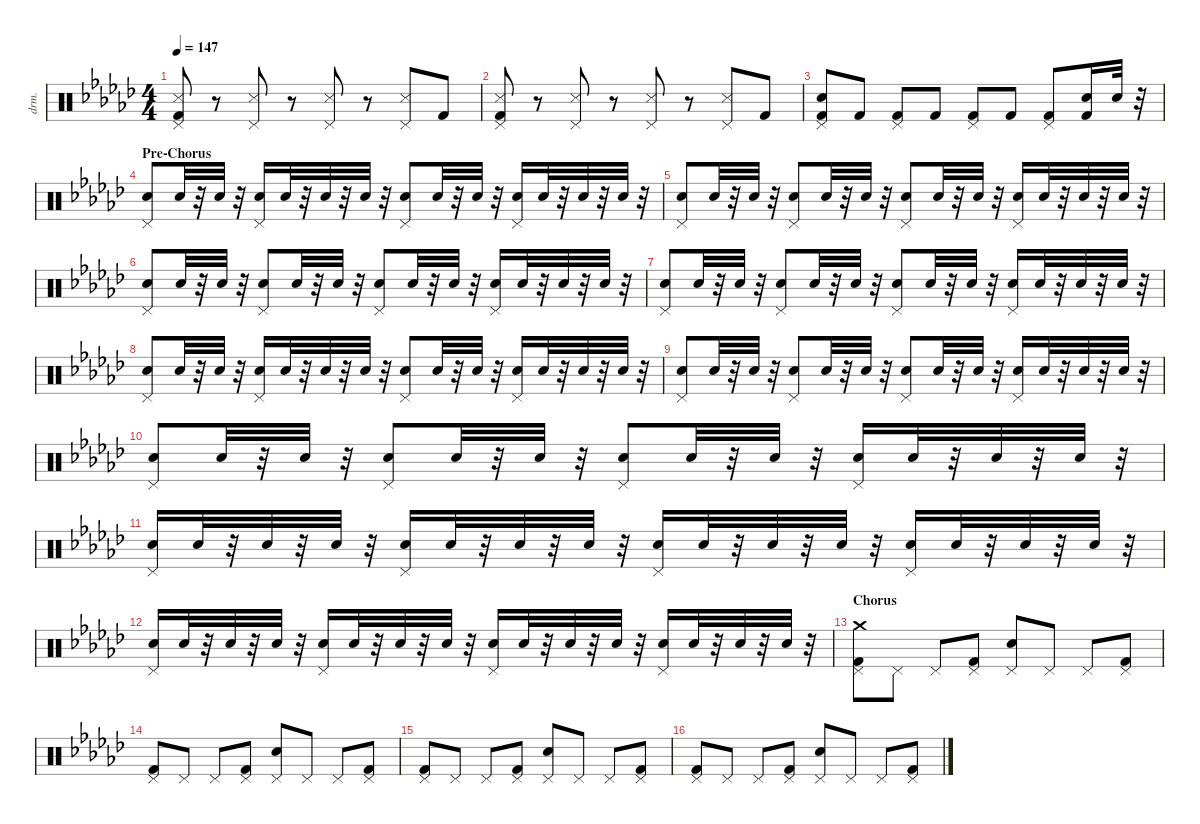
\defaultSystemsLayout 4
\hideDynamics
\bracketExtendMode nobrackets
\otherSystemsTrackNameOrientation horizontal
\track ("Drums" "drm.") {instrument percussion}
\staff {score}
\articulation defaults
\ts (4 4)
\tempo 147
\clef neutral
\ks ebminor
("Pedal Hi-Hat (hit)"{acc forcenatural} "Kick (hit) 2"{acc forcenatural} "Snare (side stick) 3"{acc forcenatural}).8{dy f beam Up} r.8{beam Up} ("Pedal Hi-Hat (hit)"{acc forcenatural} "Snare (side stick) 3"{acc forcenatural}).8{beam Up} r.8{beam Up} ("Pedal Hi-Hat (hit)"{acc forcenatural} "Snare (side stick) 3"{acc forcenatural}).8{beam Up} r.8{beam Up} ("Pedal Hi-Hat (hit)"{acc forcenatural} "Snare (side stick) 3"{acc forcenatural}).8{beam Up} "Kick (hit) 2"{acc forcenatural}.8{beam Up} |
("Pedal Hi-Hat (hit)"{acc forcenatural} "Kick (hit) 2"{acc forcenatural} "Snare (side stick) 3"{acc forcenatural}).8{beam Up} r.8{beam Up} ("Pedal Hi-Hat (hit)"{acc forcenatural} "Snare (side stick) 3"{acc forcenatural}).8{beam Up} r.8{beam Up} ("Pedal Hi-Hat (hit)"{acc forcenatural} "Snare (side stick) 3"{acc forcenatural}).8{beam Up} r.8{beam Up} ("Pedal Hi-Hat (hit)"{acc forcenatural} "Snare (side stick) 3"{acc forcenatural}).8{beam Up} "Kick (hit) 2"{acc forcenatural}.8{beam Up} |
("Pedal Hi-Hat (hit)"{acc forcenatural} "Kick (hit) 2"{acc forcenatural} "Snare (hit) 2"{acc forcenatural}).8{beam Up} "Kick (hit) 2"{acc forcenatural}.8{dy mf beam Up} ("Pedal Hi-Hat (hit)"{acc forcenatural} "Kick (hit) 2"{acc forcenatural}).8{dy f beam Up} "Kick (hit) 2"{acc forcenatural}.8{beam Up} ("Pedal Hi-Hat (hit)"{acc forcenatural} "Kick (hit) 2"{acc forcenatural}).8{beam Up} "Kick (hit) 2"{acc forcenatural}.8{dy ff beam Up} ("Pedal Hi-Hat (hit)"{acc forcenatural} "Kick (hit) 2"{acc forcenatural}).8{dy f beam Up} ("Kick (hit) 2"{acc forcenatural} "Snare (hit) 2"{acc forcenatural}).16{dy fff beam Up} "Snare (hit) 2"{acc forcenatural}.32{dy mf beam Up} r.32{beam Up} |
\section ("" "Pre-Chorus")
("Pedal Hi-Hat (hit)"{acc forcenatural} "Snare (hit) 2"{acc forcenatural}).8{dy f beam Up} "Snare (hit) 2"{acc forcenatural}.32{dy mf beam Up} r.32{beam Up} "Snare (hit) 2"{acc forcenatural}.32{beam Up} r.32{beam Up} ("Pedal Hi-Hat (hit)"{acc forcenatural} "Snare (hit) 2"{acc forcenatural}).16{dy f beam Up} "Snare (hit) 2"{acc forcenatural}.32{dy mf beam Up} r.32{beam Up} "Snare (hit) 2"{acc forcenatural}.32{beam Up} r.32{beam Up} "Snare (hit) 2"{acc forcenatural}.32{beam Up} r.32{beam Up} ("Pedal Hi-Hat (hit)"{acc forcenatural} "Snare (hit) 2"{acc forcenatural}).8{dy f beam Up} "Snare (hit) 2"{acc forcenatural}.32{dy mf beam Up} r.32{beam Up} "Snare (hit) 2"{acc forcenatural}.32{beam Up} r.32{beam Up} ("Pedal Hi-Hat (hit)"{acc forcenatural} "Snare (hit) 2"{acc forcenatural}).16{dy f beam Up} "Snare (hit) 2"{acc forcenatural}.32{dy mf beam Up} r.32{beam Up} "Snare (hit) 2"{acc forcenatural}.32{beam Up} r.32{beam Up} "Snare (hit) 2"{acc forcenatural}.32{beam Up} r.32{beam Up} |
("Pedal Hi-Hat (hit)"{acc forcenatural} "Snare (hit) 2"{acc forcenatural}).8{dy f beam Up} "Snare (hit) 2"{acc forcenatural}.32{dy mf beam Up} r.32{beam Up} "Snare (hit) 2"{acc forcenatural}.32{beam Up} r.32{beam Up} ("Pedal Hi-Hat (hit)"{acc forcenatural} "Snare (hit) 2"{acc forcenatural}).8{dy f beam Up} "Snare (hit) 2"{acc forcenatural}.32{dy mf beam Up} r.32{beam Up} "Snare (hit) 2"{acc forcenatural}.32{beam Up} r.32{beam Up} ("Pedal Hi-Hat (hit)"{acc forcenatural} "Snare (hit) 2"{acc forcenatural}).8{dy f beam Up} "Snare (hit) 2"{acc forcenatural}.32{dy mf beam Up} r.32{beam Up} "Snare (hit) 2"{acc forcenatural}.32{beam Up} r.32{beam Up} ("Pedal Hi-Hat (hit)"{acc forcenatural} "Snare (hit) 2"{acc forcenatural}).16{dy f beam Up} "Snare (hit) 2"{acc forcenatural}.32{dy mf beam Up} r.32{beam Up} "Snare (hit) 2"{acc forcenatural}.32{beam Up} r.32{beam Up} "Snare (hit) 2"{acc forcenatural}.32{beam Up} r.32{beam Up} |
("Pedal Hi-Hat (hit)"{acc forcenatural} "Snare (hit) 2"{acc forcenatural}).8{dy f beam Up} "Snare (hit) 2"{acc forcenatural}.32{dy mf beam Up} r.32{beam Up} "Snare (hit) 2"{acc forcenatural}.32{beam Up} r.32{beam Up} ("Pedal Hi-Hat (hit)"{acc forcenatural} "Snare (hit) 2"{acc forcenatural}).8{dy f beam Up} "Snare (hit) 2"{acc forcenatural}.32{dy mf beam Up} r.32{beam Up} "Snare (hit) 2"{acc forcenatural}.32{beam Up} r.32{beam Up} ("Pedal Hi-Hat (hit)"{acc forcenatural} "Snare (hit) 2"{acc forcenatural}).8{dy f beam Up} "Snare (hit) 2"{acc forcenatural}.32{dy mf beam Up} r.32{beam Up} "Snare (hit) 2"{acc forcenatural}.32{beam Up} r.32{beam Up} ("Pedal Hi-Hat (hit)"{acc forcenatural} "Snare (hit) 2"{acc forcenatural}).16{dy f beam Up} "Snare (hit) 2"{acc forcenatural}.32{dy mf beam Up} r.32{beam Up} "Snare (hit) 2"{acc forcenatural}.32{beam Up} r.32{beam Up} "Snare (hit) 2"{acc forcenatural}.32{beam Up} r.32{beam Up} |
("Pedal Hi-Hat (hit)"{acc forcenatural} "Snare (hit) 2"{acc forcenatural}).8{dy f beam Up} "Snare (hit) 2"{acc forcenatural}.32{dy mf beam Up} r.32{beam Up} "Snare (hit) 2"{acc forcenatural}.32{beam Up} r.32{beam Up} ("Pedal Hi-Hat (hit)"{acc forcenatural} "Snare (hit) 2"{acc forcenatural}).8{dy f beam Up} "Snare (hit) 2"{acc forcenatural}.32{dy mf beam Up} r.32{beam Up} "Snare (hit) 2"{acc forcenatural}.32{beam Up} r.32{beam Up} ("Pedal Hi-Hat (hit)"{acc forcenatural} "Snare (hit) 2"{acc forcenatural}).8{dy f beam Up} "Snare (hit) 2"{acc forcenatural}.32{dy mf beam Up} r.32{beam Up} "Snare (hit) 2"{acc forcenatural}.32{beam Up} r.32{beam Up} ("Pedal Hi-Hat (hit)"{acc forcenatural} "Snare (hit) 2"{acc forcenatural}).16{dy f beam Up} "Snare (hit) 2"{acc forcenatural}.32{dy mf beam Up} r.32{beam Up} "Snare (hit) 2"{acc forcenatural}.32{beam Up} r.32{beam Up} "Snare (hit) 2"{acc forcenatural}.32{beam Up} r.32{beam Up} |
("Pedal Hi-Hat (hit)"{acc forcenatural} "Snare (hit) 2"{acc forcenatural}).8{dy f beam Up} "Snare (hit) 2"{acc forcenatural}.32{dy mf beam Up} r.32{beam Up} "Snare (hit) 2"{acc forcenatural}.32{beam Up} r.32{beam Up} ("Pedal Hi-Hat (hit)"{acc forcenatural} "Snare (hit) 2"{acc forcenatural}).16{dy f beam Up} "Snare (hit) 2"{acc forcenatural}.32{dy mf beam Up} r.32{beam Up} "Snare (hit) 2"{acc forcenatural}.32{beam Up} r.32{beam Up} "Snare (hit) 2"{acc forcenatural}.32{beam Up} r.32{beam Up} ("Pedal Hi-Hat (hit)"{acc forcenatural} "Snare (hit) 2"{acc forcenatural}).8{dy f beam Up} "Snare (hit) 2"{acc forcenatural}.32{dy mf beam Up} r.32{beam Up} "Snare (hit) 2"{acc forcenatural}.32{beam Up} r.32{beam Up} ("Pedal Hi-Hat (hit)"{acc forcenatural} "Snare (hit) 2"{acc forcenatural}).16{dy f beam Up} "Snare (hit) 2"{acc forcenatural}.32{dy mf beam Up} r.32{beam Up} "Snare (hit) 2"{acc forcenatural}.32{beam Up} r.32{beam Up} "Snare (hit) 2"{acc forcenatural}.32{beam Up} r.32{beam Up} |
("Pedal Hi-Hat (hit)"{acc forcenatural} "Snare (hit) 2"{acc forcenatural}).8{dy f beam Up} "Snare (hit) 2"{acc forcenatural}.32{dy mf beam Up} r.32{beam Up} "Snare (hit) 2"{acc forcenatural}.32{beam Up} r.32{beam Up} ("Pedal Hi-Hat (hit)"{acc forcenatural} "Snare (hit) 2"{acc forcenatural}).8{dy f beam Up} "Snare (hit) 2"{acc forcenatural}.32{dy mf beam Up} r.32{beam Up} "Snare (hit) 2"{acc forcenatural}.32{beam Up} r.32{beam Up} ("Pedal Hi-Hat (hit)"{acc forcenatural} "Snare (hit) 2"{acc forcenatural}).8{dy f beam Up} "Snare (hit) 2"{acc forcenatural}.32{dy mf beam Up} r.32{beam Up} "Snare (hit) 2"{acc forcenatural}.32{beam Up} r.32{beam Up} ("Pedal Hi-Hat (hit)"{acc forcenatural} "Snare (hit) 2"{acc forcenatural}).16{dy f beam Up} "Snare (hit) 2"{acc forcenatural}.32{dy mf beam Up} r.32{beam Up} "Snare (hit) 2"{acc forcenatural}.32{beam Up} r.32{beam Up} "Snare (hit) 2"{acc forcenatural}.32{beam Up} r.32{beam Up} |
("Pedal Hi-Hat (hit)"{acc forcenatural} "Snare (hit) 2"{acc forcenatural}).8{dy f beam Up} "Snare (hit) 2"{acc forcenatural}.32{dy mf beam Up} r.32{beam Up} "Snare (hit) 2"{acc forcenatural}.32{beam Up} r.32{beam Up} ("Pedal Hi-Hat (hit)"{acc forcenatural} "Snare (hit) 2"{acc forcenatural}).8{dy f beam Up} "Snare (hit) 2"{acc forcenatural}.32{dy mf beam Up} r.32{beam Up} "Snare (hit) 2"{acc forcenatural}.32{beam Up} r.32{beam Up} ("Pedal Hi-Hat (hit)"{acc forcenatural} "Snare (hit) 2"{acc forcenatural}).8{dy f beam Up} "Snare (hit) 2"{acc forcenatural}.32{dy mf beam Up} r.32{beam Up} "Snare (hit) 2"{acc forcenatural}.32{beam Up} r.32{beam Up} ("Pedal Hi-Hat (hit)"{acc forcenatural} "Snare (hit) 2"{acc forcenatural}).16{dy f beam Up} "Snare (hit) 2"{acc forcenatural}.32{dy mf beam Up} r.32{beam Up} "Snare (hit) 2"{acc forcenatural}.32{beam Up} r.32{beam Up} "Snare (hit) 2"{acc forcenatural}.32{beam Up} r.32{beam Up} |
("Pedal Hi-Hat (hit)"{acc forcenatural} "Snare (hit) 2"{acc forcenatural}).16{dy f beam Up} "Snare (hit) 2"{acc forcenatural}.32{dy mp beam Up} r.32{beam Up} "Snare (hit) 2"{acc forcenatural}.32{beam Up} r.32{beam Up} "Snare (hit) 2"{acc forcenatural}.32{beam Up} r.32{beam Up} ("Pedal Hi-Hat (hit)"{acc forcenatural} "Snare (hit) 2"{acc forcenatural}).16{dy f beam Up} "Snare (hit) 2"{acc forcenatural}.32{dy mp beam Up} r.32{beam Up} "Snare (hit) 2"{acc forcenatural}.32{beam Up} r.32{beam Up} "Snare (hit) 2"{acc forcenatural}.32{beam Up} r.32{beam Up} ("Pedal Hi-Hat (hit)"{acc forcenatural} "Snare (hit) 2"{acc forcenatural}).16{dy f beam Up} "Snare (hit) 2"{acc forcenatural}.32{dy mp beam Up} r.32{beam Up} "Snare (hit) 2"{acc forcenatural}.32{beam Up} r.32{beam Up} "Snare (hit) 2"{acc forcenatural}.32{beam Up} r.32{beam Up} ("Pedal Hi-Hat (hit)"{acc forcenatural} "Snare (hit) 2"{acc forcenatural}).16{dy f beam Up} "Snare (hit) 2"{acc forcenatural}.32{dy mp beam Up} r.32{beam Up} "Snare (hit) 2"{acc forcenatural}.32{beam Up} r.32{beam Up} "Snare (hit) 2"{acc forcenatural}.32{beam Up} r.32{beam Up} |
("Pedal Hi-Hat (hit)"{acc forcenatural} "Snare (hit) 2"{acc forcenatural}).16{dy f beam Up} "Snare (hit) 2"{acc forcenatural}.32{dy fff beam Up} r.32{beam Up} "Snare (hit) 2"{acc forcenatural}.32{dy mp beam Up} r.32{beam Up} "Snare (hit) 2"{acc forcenatural}.32{beam Up} r.32{beam Up} ("Pedal Hi-Hat (hit)"{acc forcenatural} "Snare (hit) 2"{acc forcenatural}).16{dy f beam Up} "Snare (hit) 2"{acc forcenatural}.32{dy mf beam Up} r.32{beam Up} "Snare (hit) 2"{acc forcenatural}.32{beam Up} r.32{beam Up} "Snare (hit) 2"{acc forcenatural}.32{beam Up} r.32{beam Up} ("Pedal Hi-Hat (hit)"{acc forcenatural} "Snare (hit) 2"{acc forcenatural}).16{dy f beam Up} "Snare (hit) 2"{acc forcenatural}.32{beam Up} r.32{beam Up} "Snare (hit) 2"{acc forcenatural}.32{beam Up} r.32{beam Up} "Snare (hit) 2"{acc forcenatural}.32{beam Up} r.32{beam Up} ("Pedal Hi-Hat (hit)"{acc forcenatural} "Snare (hit) 2"{acc forcenatural}).16{beam Up} "Snare (hit) 2"{acc forcenatural}.32{dy ff beam Up} r.32{beam Up} "Snare (hit) 2"{acc forcenatural}.32{beam Up} r.32{beam Up} "Snare (hit) 2"{acc forcenatural}.32{dy fff beam Up} r.32{beam Up} |
\section ("" "Chorus")
("Pedal Hi-Hat (hit)"{acc forcenatural} "Kick (hit) 2"{acc forcenatural} "Crash medium (hit)"{acc forcenatural}).8{dy f beam Down} "Pedal Hi-Hat (hit)"{acc forcenatural}.8{dy mp beam Down} "Pedal Hi-Hat (hit)"{acc forcenatural}.8{dy f beam Up} ("Pedal Hi-Hat (hit)"{acc forcenatural} "Kick (hit) 2"{acc forcenatural}).8{dy mp beam Up} ("Pedal Hi-Hat (hit)"{acc forcenatural} "Snare (hit) 2"{acc forcenatural}).8{dy f beam Up} "Pedal Hi-Hat (hit)"{acc forcenatural}.8{dy mp beam Up} "Pedal Hi-Hat (hit)"{acc forcenatural}.8{dy f beam Up} ("Pedal Hi-Hat (hit)"{acc forcenatural} "Kick (hit) 2"{acc forcenatural}).8{dy mp beam Up} |
("Pedal Hi-Hat (hit)"{acc forcenatural} "Kick (hit) 2"{acc forcenatural}).8{dy f beam Up} "Pedal Hi-Hat (hit)"{acc forcenatural}.8{dy mp beam Up} "Pedal Hi-Hat (hit)"{acc forcenatural}.8{dy f beam Up} ("Pedal Hi-Hat (hit)"{acc forcenatural} "Kick (hit) 2"{acc forcenatural}).8{dy mp beam Up} ("Pedal Hi-Hat (hit)"{acc forcenatural} "Snare (hit) 2"{acc forcenatural}).8{dy f beam Up} "Pedal Hi-Hat (hit)"{acc forcenatural}.8{dy mp beam Up} "Pedal Hi-Hat (hit)"{acc forcenatural}.8{dy f beam Up} ("Pedal Hi-Hat (hit)"{acc forcenatural} "Kick (hit) 2"{acc forcenatural}).8{dy mp beam Up} |
("Pedal Hi-Hat (hit)"{acc forcenatural} "Kick (hit) 2"{acc forcenatural}).8{dy f beam Up} "Pedal Hi-Hat (hit)"{acc forcenatural}.8{dy mp beam Up} "Pedal Hi-Hat (hit)"{acc forcenatural}.8{dy f beam Up} ("Pedal Hi-Hat (hit)"{acc forcenatural} "Kick (hit) 2"{acc forcenatural}).8{dy mp beam Up} ("Pedal Hi-Hat (hit)"{acc forcenatural} "Snare (hit) 2"{acc forcenatural}).8{dy f beam Up} "Pedal Hi-Hat (hit)"{acc forcenatural}.8{dy mp beam Up} "Pedal Hi-Hat (hit)"{acc forcenatural}.8{dy f beam Up} ("Pedal Hi-Hat (hit)"{acc forcenatural} "Kick (hit) 2"{acc forcenatural}).8{dy mp beam Up} |
("Pedal Hi-Hat (hit)"{acc forcenatural} "Kick (hit) 2"{acc forcenatural}).8{dy f beam Up} "Pedal Hi-Hat (hit)"{acc forcenatural}.8{dy mp beam Up} "Pedal Hi-Hat (hit)"{acc forcenatural}.8{dy f beam Up} ("Pedal Hi-Hat (hit)"{acc forcenatural} "Kick (hit) 2"{acc forcenatural}).8{dy mp beam Up} ("Pedal Hi-Hat (hit)"{acc forcenatural} "Snare (hit) 2"{acc forcenatural}).8{dy f beam Up} "Pedal Hi-Hat (hit)"{acc forcenatural}.8{dy mp beam Up} "Pedal Hi-Hat (hit)"{acc forcenatural}.8{dy f beam Up} ("Pedal Hi-Hat (hit)"{acc forcenatural} "Kick (hit) 2"{acc forcenatural}).8{dy mp beam Up}
